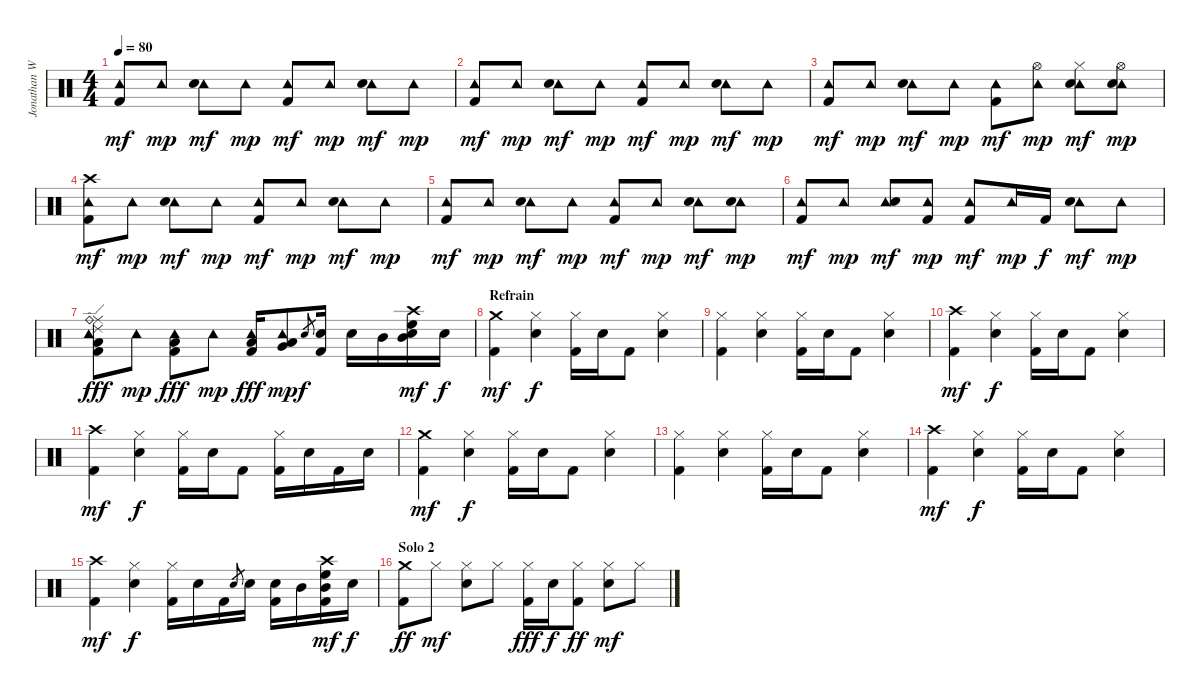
\track ("Jonathan Wenzel" "Jonathan W") {instrument percussion}
\staff {score}
\articulation defaults
\ts (4 4)
\tempo 80
\clef neutral
\ks c
("Tambourine (hit)" "Kick (hit) 2").8{dy mf} "Tambourine (hit)".8{dy mp} ("Tambourine (hit)" "Electric Snare (hit)").8{dy mf} "Tambourine (hit)".8{dy mp} ("Tambourine (hit)" "Kick (hit) 2").8{dy mf} "Tambourine (hit)".8{dy mp} ("Tambourine (hit)" "Electric Snare (hit)").8{dy mf} "Tambourine (hit)".8{dy mp} |
("Tambourine (hit)" "Kick (hit) 2").8{dy mf} "Tambourine (hit)".8{dy mp} ("Tambourine (hit)" "Electric Snare (hit)").8{dy mf} "Tambourine (hit)".8{dy mp} ("Tambourine (hit)" "Kick (hit) 2").8{dy mf} "Tambourine (hit)".8{dy mp} ("Tambourine (hit)" "Electric Snare (hit)").8{dy mf} "Tambourine (hit)".8{dy mp} |
("Tambourine (hit)" "Kick (hit) 2").8{dy mf} "Tambourine (hit)".8{dy mp} ("Tambourine (hit)" "Electric Snare (hit)").8{dy mf} "Tambourine (hit)".8{dy mp} ("Tambourine (hit)" "Kick (hit) 2").8{dy mf} ("Tambourine (hit)" "Hi-Hat (open)").8{dy mp} ("Tambourine (hit)" "Hi-Hat (closed)" "Electric Snare (hit)").8{dy mf} ("Tambourine (hit)" "Hi-Hat (open)" "Electric Snare (hit)").8{dy mp} |
("Tambourine (hit)" "Crash high (hit)" "Kick (hit) 2").8{dy mf} "Tambourine (hit)".8{dy mp} ("Tambourine (hit)" "Electric Snare (hit)").8{dy mf} "Tambourine (hit)".8{dy mp} ("Tambourine (hit)" "Kick (hit) 2").8{dy mf} "Tambourine (hit)".8{dy mp} ("Tambourine (hit)" "Electric Snare (hit)").8{dy mf} "Tambourine (hit)".8{dy mp} |
("Tambourine (hit)" "Kick (hit) 2").8{dy mf} "Tambourine (hit)".8{dy mp} ("Tambourine (hit)" "Electric Snare (hit)").8{dy mf} "Tambourine (hit)".8{dy mp} ("Tambourine (hit)" "Kick (hit) 2").8{dy mf} "Tambourine (hit)".8{dy mp} ("Tambourine (hit)" "Electric Snare (hit)").8{dy mf} ("Tambourine (hit)" "Electric Snare (hit)").8{dy mp} |
("Tambourine (hit)" "Kick (hit) 2").8{dy mf} "Tambourine (hit)".8{dy mp} ("Tambourine (hit)" "Electric Snare (hit)").8{dy mf} ("Tambourine (hit)" "Kick (hit) 2").8{dy mp} ("Tambourine (hit)" "Kick (hit) 2").8{dy mf} "Tambourine (hit)".16{dy mp} "Kick (hit) 2".16{dy f} ("Tambourine (hit)" "Electric Snare (hit)").8{dy mf} "Tambourine (hit)".8{dy mp} |
("Ride (edge) 2" "Ride (middle)" "Tambourine (hit)" "Ride (bell)" "Low Floor Tom (hit)" "Kick (hit) 2").8{dy fff} "Tambourine (hit)".8{dy mp} ("Tambourine (hit)" "Low Floor Tom (hit)" "Kick (hit) 2").8{dy fff} "Tambourine (hit)".8{dy mp} ("Tambourine (hit)" "Low Floor Tom (hit)" "Kick (hit) 2").16{dy fff} ("Tambourine (hit)" "Low Floor Tom (hit)" "Very Low Tom (hit)").8{dy mp} "Electric Snare (hit)".8{gr dy f} ("Electric Snare (hit)" "Kick (hit) 2").16 "Electric Snare (hit)".16 "Mid Tom (hit)".16 ("Crash high (hit)" "High Floor Tom (hit)" "Mid Tom (hit)" "Electric Snare (hit)").16{dy mf} "Electric Snare (hit)".16{dy f} |
\section ("" "Refrain")
("Crash medium (hit)" "Kick (hit) 2").4{dy mf} ("Hi-Hat (closed)" "Electric Snare (hit)").4{dy f} ("Hi-Hat (closed)" "Kick (hit) 2").16 "Electric Snare (hit)".16 "Kick (hit) 2".8 ("Hi-Hat (closed)" "Electric Snare (hit)").4 |
("Hi-Hat (closed)" "Kick (hit) 2").4 ("Hi-Hat (closed)" "Electric Snare (hit)").4 ("Hi-Hat (closed)" "Kick (hit) 2").16 "Electric Snare (hit)".16 "Kick (hit) 2".8 ("Hi-Hat (closed)" "Electric Snare (hit)").4 |
("Crash high (hit)" "Kick (hit) 2").4{dy mf} ("Hi-Hat (closed)" "Electric Snare (hit)").4{dy f} ("Hi-Hat (closed)" "Kick (hit) 2").16 "Electric Snare (hit)".16 "Kick (hit) 2".8 ("Hi-Hat (closed)" "Electric Snare (hit)").4 |
("Crash high (hit)" "Kick (hit) 2").4{dy mf} ("Hi-Hat (closed)" "Electric Snare (hit)").4{dy f} ("Hi-Hat (closed)" "Kick (hit) 2").16 "Electric Snare (hit)".16 "Kick (hit) 2".8 ("Hi-Hat (closed)" "Kick (hit) 2").16 "Electric Snare (hit)".16 "Kick (hit) 2".16 "Electric Snare (hit)".16 |
("Crash medium (hit)" "Kick (hit) 2").4{dy mf} ("Hi-Hat (closed)" "Electric Snare (hit)").4{dy f} ("Hi-Hat (closed)" "Kick (hit) 2").16 "Electric Snare (hit)".16 "Kick (hit) 2".8 ("Hi-Hat (closed)" "Electric Snare (hit)").4 |
("Hi-Hat (closed)" "Kick (hit) 2").4 ("Hi-Hat (closed)" "Electric Snare (hit)").4 ("Hi-Hat (closed)" "Kick (hit) 2").16 "Electric Snare (hit)".16 "Kick (hit) 2".8 ("Hi-Hat (closed)" "Electric Snare (hit)").4 |
("Crash high (hit)" "Kick (hit) 2").4{dy mf} ("Hi-Hat (closed)" "Electric Snare (hit)").4{dy f} ("Hi-Hat (closed)" "Kick (hit) 2").16 "Electric Snare (hit)".16 "Kick (hit) 2".8 ("Hi-Hat (closed)" "Electric Snare (hit)").4 |
("Crash high (hit)" "Kick (hit) 2").4{dy mf} ("Hi-Hat (closed)" "Electric Snare (hit)").4{dy f} ("Hi-Hat (closed)" "Kick (hit) 2").16 "Electric Snare (hit)".16 "Kick (hit) 2".16 "Electric Snare (hit)".8{gr} "Electric Snare (hit)".16 ("Electric Snare (hit)" "Kick (hit) 2").16 "Mid Tom (hit)".16 ("Crash high (hit)" "Mid Tom (hit)" "High Floor Tom (hit)" "Kick (hit) 2").16{dy mf} "Electric Snare (hit)".16{dy f} |
\section ("" "Solo 2")
("Crash medium (hit)" "Kick (hit) 2").8{dy ff} "Hi-Hat (closed)".8{dy mf} ("Hi-Hat (closed)" "Electric Snare (hit)").8 "Hi-Hat (closed)".8 ("Hi-Hat (closed)" "Kick (hit) 2").16{dy fff} "Electric Snare (hit)".16{dy f} ("Hi-Hat (closed)" "Kick (hit) 2").8{dy ff} ("Hi-Hat (closed)" "Electric Snare (hit)").8{dy mf} "Hi-Hat (closed)".8
